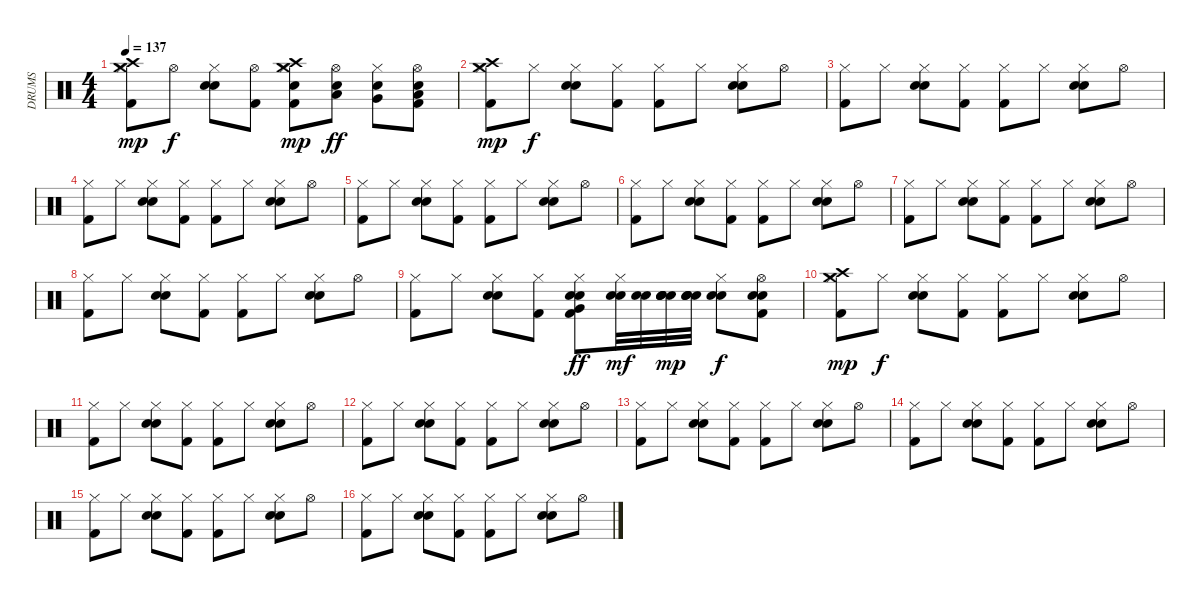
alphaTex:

\track ("DRUMS" "DRUMS") {instrument percussion}
\staff {score}
\articulation defaults
\ts (4 4)
\tempo 137
\clef neutral
\ks c
("Crash high (hit)" "Crash medium (hit)" "Hi-Hat (closed)" "Kick (hit) 2").8{dy mp} "Hi-Hat (open)".8{dy f} ("Snare (hit) 2" "Electric Snare (hit)" "Hi-Hat (closed)").8 ("Hi-Hat (open)" "Kick (hit) 2").8 ("Crash high (hit)" "Crash medium (hit)" "Electric Snare (hit)" "Hi-Hat (closed)" "Kick (hit) 2").8{dy mp} ("Hi-Hat (open)" "Low Tom (hit)" "Electric Snare (hit)").8{dy ff} ("Very Low Tom (hit)" "Electric Snare (hit)" "Hi-Hat (closed)").8 ("Low Floor Tom (hit)" "Electric Snare (hit)" "Hi-Hat (open)" "Kick (hit) 2").8 |
("Hi-Hat (closed)" "Crash high (hit)" "Crash medium (hit)" "Kick (hit) 2").8{dy mp} "Hi-Hat (closed)".8{dy f} ("Hi-Hat (closed)" "Electric Snare (hit)" "Snare (hit) 2").8 ("Hi-Hat (closed)" "Kick (hit) 2").8 ("Hi-Hat (closed)" "Kick (hit) 2").8 "Hi-Hat (closed)".8 ("Hi-Hat (closed)" "Electric Snare (hit)" "Snare (hit) 2").8 "Hi-Hat (open)".8 |
("Hi-Hat (closed)" "Kick (hit) 2").8 "Hi-Hat (closed)".8 ("Hi-Hat (closed)" "Electric Snare (hit)" "Snare (hit) 2").8 ("Hi-Hat (closed)" "Kick (hit) 2").8 ("Hi-Hat (closed)" "Kick (hit) 2").8 "Hi-Hat (closed)".8 ("Hi-Hat (closed)" "Electric Snare (hit)" "Snare (hit) 2").8 "Hi-Hat (open)".8 |
("Hi-Hat (closed)" "Kick (hit) 2").8 "Hi-Hat (closed)".8 ("Hi-Hat (closed)" "Electric Snare (hit)" "Snare (hit) 2").8 ("Hi-Hat (closed)" "Kick (hit) 2").8 ("Hi-Hat (closed)" "Kick (hit) 2").8 "Hi-Hat (closed)".8 ("Hi-Hat (closed)" "Electric Snare (hit)" "Snare (hit) 2").8 "Hi-Hat (open)".8 |
("Hi-Hat (closed)" "Kick (hit) 2").8 "Hi-Hat (closed)".8 ("Hi-Hat (closed)" "Electric Snare (hit)" "Snare (hit) 2").8 ("Hi-Hat (closed)" "Kick (hit) 2").8 ("Hi-Hat (closed)" "Kick (hit) 2").8 "Hi-Hat (closed)".8 ("Hi-Hat (closed)" "Electric Snare (hit)" "Snare (hit) 2").8 "Hi-Hat (open)".8 |
("Hi-Hat (closed)" "Kick (hit) 2").8 "Hi-Hat (closed)".8 ("Hi-Hat (closed)" "Electric Snare (hit)" "Snare (hit) 2").8 ("Hi-Hat (closed)" "Kick (hit) 2").8 ("Hi-Hat (closed)" "Kick (hit) 2").8 "Hi-Hat (closed)".8 ("Hi-Hat (closed)" "Electric Snare (hit)" "Snare (hit) 2").8 "Hi-Hat (open)".8 |
("Hi-Hat (closed)" "Kick (hit) 2").8 "Hi-Hat (closed)".8 ("Hi-Hat (closed)" "Electric Snare (hit)" "Snare (hit) 2").8 ("Hi-Hat (closed)" "Kick (hit) 2").8 ("Hi-Hat (closed)" "Kick (hit) 2").8 "Hi-Hat (closed)".8 ("Hi-Hat (closed)" "Electric Snare (hit)" "Snare (hit) 2").8 "Hi-Hat (open)".8 |
("Hi-Hat (closed)" "Kick (hit) 2").8 "Hi-Hat (closed)".8 ("Hi-Hat (closed)" "Electric Snare (hit)" "Snare (hit) 2").8 ("Hi-Hat (closed)" "Kick (hit) 2").8 ("Hi-Hat (closed)" "Kick (hit) 2").8 "Hi-Hat (closed)".8 ("Hi-Hat (closed)" "Electric Snare (hit)" "Snare (hit) 2").8 "Hi-Hat (open)".8 |
("Hi-Hat (closed)" "Kick (hit) 2").8 "Hi-Hat (closed)".8 ("Snare (hit) 2" "Electric Snare (hit)" "Hi-Hat (closed)").8 ("Hi-Hat (closed)" "Kick (hit) 2").8 ("Snare (hit) 2" "Very Low Tom (hit)" "Electric Snare (hit)" "Hi-Hat (closed)" "Kick (hit) 2").8{dy ff} ("Electric Snare (hit)" "Hi-Hat (closed)" "Snare (hit) 2").32{dy mf} ("Electric Snare (hit)" "Snare (hit) 2").32 ("Electric Snare (hit)" "Snare (hit) 2" "Electric Snare (hit)" "Snare (hit) 2").32{dy mp} ("Electric Snare (hit)" "Snare (hit) 2" "Electric Snare (hit)" "Snare (hit) 2").32 ("Snare (hit) 2" "Electric Snare (hit)" "Hi-Hat (closed)").8{dy f} ("Snare (hit) 2" "Electric Snare (hit)" "Hi-Hat (open)" "Kick (hit) 2").8 |
("Hi-Hat (closed)" "Crash high (hit)" "Crash medium (hit)" "Kick (hit) 2").8{dy mp} "Hi-Hat (closed)".8{dy f} ("Hi-Hat (closed)" "Electric Snare (hit)" "Snare (hit) 2").8 ("Hi-Hat (closed)" "Kick (hit) 2").8 ("Hi-Hat (closed)" "Kick (hit) 2").8 "Hi-Hat (closed)".8 ("Hi-Hat (closed)" "Electric Snare (hit)" "Snare (hit) 2").8 "Hi-Hat (open)".8 |
("Hi-Hat (closed)" "Kick (hit) 2").8 "Hi-Hat (closed)".8 ("Hi-Hat (closed)" "Electric Snare (hit)" "Snare (hit) 2").8 ("Hi-Hat (closed)" "Kick (hit) 2").8 ("Hi-Hat (closed)" "Kick (hit) 2").8 "Hi-Hat (closed)".8 ("Hi-Hat (closed)" "Electric Snare (hit)" "Snare (hit) 2").8 "Hi-Hat (open)".8 |
("Hi-Hat (closed)" "Kick (hit) 2").8 "Hi-Hat (closed)".8 ("Hi-Hat (closed)" "Electric Snare (hit)" "Snare (hit) 2").8 ("Hi-Hat (closed)" "Kick (hit) 2").8 ("Hi-Hat (closed)" "Kick (hit) 2").8 "Hi-Hat (closed)".8 ("Hi-Hat (closed)" "Electric Snare (hit)" "Snare (hit) 2").8 "Hi-Hat (open)".8 |
("Hi-Hat (closed)" "Kick (hit) 2").8 "Hi-Hat (closed)".8 ("Hi-Hat (closed)" "Electric Snare (hit)" "Snare (hit) 2").8 ("Hi-Hat (closed)" "Kick (hit) 2").8 ("Hi-Hat (closed)" "Kick (hit) 2").8 "Hi-Hat (closed)".8 ("Hi-Hat (closed)" "Electric Snare (hit)" "Snare (hit) 2").8 "Hi-Hat (open)".8 |
("Hi-Hat (closed)" "Kick (hit) 2").8 "Hi-Hat (closed)".8 ("Hi-Hat (closed)" "Electric Snare (hit)" "Snare (hit) 2").8 ("Hi-Hat (closed)" "Kick (hit) 2").8 ("Hi-Hat (closed)" "Kick (hit) 2").8 "Hi-Hat (closed)".8 ("Hi-Hat (closed)" "Electric Snare (hit)" "Snare (hit) 2").8 "Hi-Hat (open)".8 |
("Hi-Hat (closed)" "Kick (hit) 2").8 "Hi-Hat (closed)".8 ("Hi-Hat (closed)" "Electric Snare (hit)" "Snare (hit) 2").8 ("Hi-Hat (closed)" "Kick (hit) 2").8 ("Hi-Hat (closed)" "Kick (hit) 2").8 "Hi-Hat (closed)".8 ("Hi-Hat (closed)" "Electric Snare (hit)" "Snare (hit) 2").8 "Hi-Hat (open)".8 |
("Hi-Hat (closed)" "Kick (hit) 2").8 "Hi-Hat (closed)".8 ("Hi-Hat (closed)" "Electric Snare (hit)" "Snare (hit) 2").8 ("Hi-Hat (closed)" "Kick (hit) 2").8 ("Hi-Hat (closed)" "Kick (hit) 2").8 "Hi-Hat (closed)".8 ("Hi-Hat (closed)" "Electric Snare (hit)" "Snare (hit) 2").8 "Hi-Hat (open)".8
